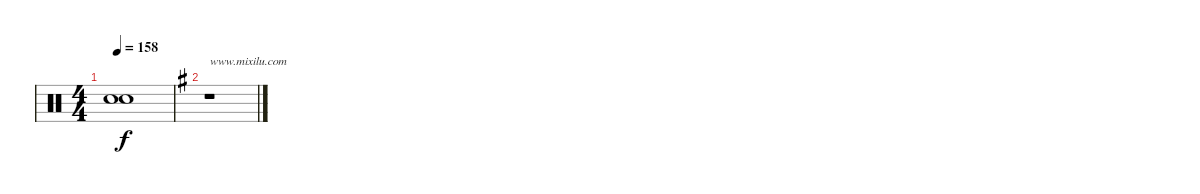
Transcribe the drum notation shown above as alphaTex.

\track "" {instrument percussion}
\staff {score}
\articulation defaults
\ts (4 4)
\tempo 158
\clef neutral
\ks c
("Snare (hit)"{t} "Snare (hit)"{t}).1{dy f} |
\ks g
r.1{txt "www.mixilu.com"}
